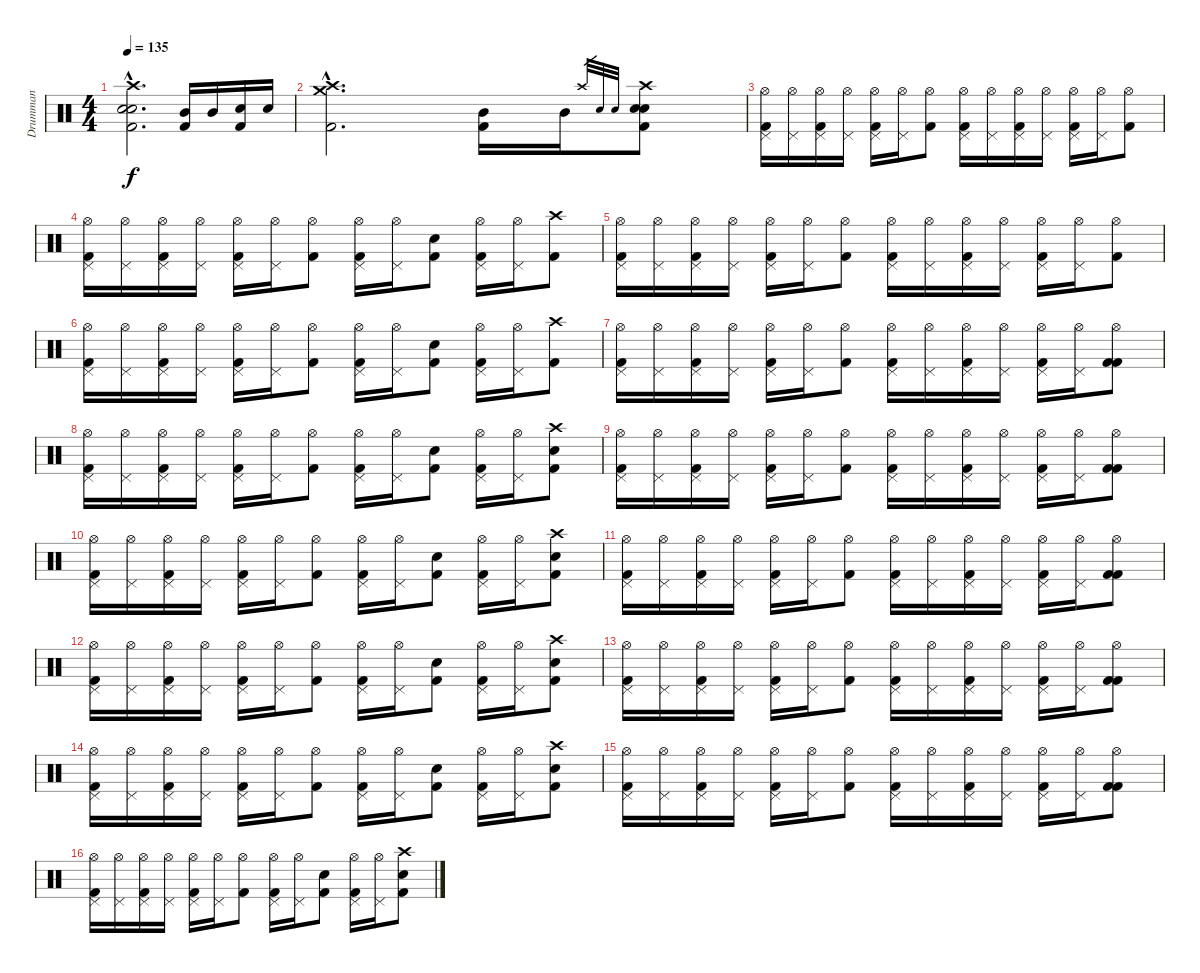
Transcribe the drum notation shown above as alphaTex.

\track ("Drumman" "Drumman") {instrument percussion}
\staff {score}
\articulation defaults
\ts (4 4)
\tempo 135
\clef neutral
\ks c
("Crash high (hit)"{hac} "Snare (hit) 2"{hac} "Snare (hit) 2"{hac} "Kick (hit) 2"{hac}).2{d bd 120 dy f} ("Kick (hit) 2" "Mid Tom (hit)").16 "Mid Tom (hit)".16 ("Kick (hit) 2" "Snare (hit) 2").16 "Snare (hit) 2".16 |
("Crash medium (hit)"{hac} "Crash high (hit)"{hac} "Kick (hit) 2"{hac}).2{d bd 120} ("Mid Tom (hit)" "Kick (hit) 2").16 "Mid Tom (hit)".16 "Crash high (hit)".32{gr} "Snare (hit) 2".32{gr} "Snare (hit) 2".32{gr} ("Crash high (hit)" "Snare (hit) 2" "Snare (hit) 2" "Kick (hit) 2").8{bd 120} |
("Hi-Hat (open)" "Pedal Hi-Hat (hit)" "Kick (hit) 2").16 ("Hi-Hat (open)" "Pedal Hi-Hat (hit)").16 ("Hi-Hat (open)" "Pedal Hi-Hat (hit)" "Kick (hit) 2").16 ("Hi-Hat (open)" "Pedal Hi-Hat (hit)").16 ("Hi-Hat (open)" "Pedal Hi-Hat (hit)" "Kick (hit) 2").16 ("Hi-Hat (open)" "Pedal Hi-Hat (hit)").16 ("Hi-Hat (open)" "Kick (hit) 2").8 ("Hi-Hat (open)" "Pedal Hi-Hat (hit)" "Kick (hit) 2").16 ("Hi-Hat (open)" "Pedal Hi-Hat (hit)").16 ("Hi-Hat (open)" "Pedal Hi-Hat (hit)" "Kick (hit) 2").16 ("Hi-Hat (open)" "Pedal Hi-Hat (hit)").16 ("Hi-Hat (open)" "Pedal Hi-Hat (hit)" "Kick (hit) 2").16 ("Hi-Hat (open)" "Pedal Hi-Hat (hit)").16 ("Hi-Hat (open)" "Kick (hit) 2").8 |
("Hi-Hat (open)" "Pedal Hi-Hat (hit)" "Kick (hit) 2").16 ("Hi-Hat (open)" "Pedal Hi-Hat (hit)").16 ("Hi-Hat (open)" "Pedal Hi-Hat (hit)" "Kick (hit) 2").16 ("Hi-Hat (open)" "Pedal Hi-Hat (hit)").16 ("Hi-Hat (open)" "Pedal Hi-Hat (hit)" "Kick (hit) 2").16 ("Hi-Hat (open)" "Pedal Hi-Hat (hit)").16 ("Hi-Hat (open)" "Kick (hit) 2").8 ("Hi-Hat (open)" "Pedal Hi-Hat (hit)" "Kick (hit) 2").16 ("Hi-Hat (open)" "Pedal Hi-Hat (hit)").16 ("Snare (hit) 2" "Kick (hit) 2").8 ("Hi-Hat (open)" "Pedal Hi-Hat (hit)" "Kick (hit) 2").16 ("Hi-Hat (open)" "Pedal Hi-Hat (hit)").16 ("Crash high (hit)" "Kick (hit) 2").8 |
("Hi-Hat (open)" "Pedal Hi-Hat (hit)" "Kick (hit) 2").16 ("Hi-Hat (open)" "Pedal Hi-Hat (hit)").16 ("Hi-Hat (open)" "Pedal Hi-Hat (hit)" "Kick (hit) 2").16 ("Hi-Hat (open)" "Pedal Hi-Hat (hit)").16 ("Hi-Hat (open)" "Pedal Hi-Hat (hit)" "Kick (hit) 2").16 ("Hi-Hat (open)" "Pedal Hi-Hat (hit)").16 ("Hi-Hat (open)" "Kick (hit) 2").8 ("Hi-Hat (open)" "Pedal Hi-Hat (hit)" "Kick (hit) 2").16 ("Hi-Hat (open)" "Pedal Hi-Hat (hit)").16 ("Hi-Hat (open)" "Pedal Hi-Hat (hit)" "Kick (hit) 2").16 ("Hi-Hat (open)" "Pedal Hi-Hat (hit)").16 ("Hi-Hat (open)" "Pedal Hi-Hat (hit)" "Kick (hit) 2").16 ("Hi-Hat (open)" "Pedal Hi-Hat (hit)").16 ("Hi-Hat (open)" "Kick (hit) 2").8 |
("Hi-Hat (open)" "Pedal Hi-Hat (hit)" "Kick (hit) 2").16 ("Hi-Hat (open)" "Pedal Hi-Hat (hit)").16 ("Hi-Hat (open)" "Pedal Hi-Hat (hit)" "Kick (hit) 2").16 ("Hi-Hat (open)" "Pedal Hi-Hat (hit)").16 ("Hi-Hat (open)" "Pedal Hi-Hat (hit)" "Kick (hit) 2").16 ("Hi-Hat (open)" "Pedal Hi-Hat (hit)").16 ("Hi-Hat (open)" "Kick (hit) 2").8 ("Hi-Hat (open)" "Pedal Hi-Hat (hit)" "Kick (hit) 2").16 ("Hi-Hat (open)" "Pedal Hi-Hat (hit)").16 ("Snare (hit) 2" "Kick (hit) 2").8 ("Hi-Hat (open)" "Pedal Hi-Hat (hit)" "Kick (hit) 2").16 ("Hi-Hat (open)" "Pedal Hi-Hat (hit)").16 ("Crash high (hit)" "Kick (hit) 2").8 |
("Hi-Hat (open)" "Pedal Hi-Hat (hit)" "Kick (hit) 2").16 ("Hi-Hat (open)" "Pedal Hi-Hat (hit)").16 ("Hi-Hat (open)" "Pedal Hi-Hat (hit)" "Kick (hit) 2").16 ("Hi-Hat (open)" "Pedal Hi-Hat (hit)").16 ("Hi-Hat (open)" "Pedal Hi-Hat (hit)" "Kick (hit) 2").16 ("Hi-Hat (open)" "Pedal Hi-Hat (hit)").16 ("Hi-Hat (open)" "Kick (hit) 2").8 ("Hi-Hat (open)" "Pedal Hi-Hat (hit)" "Kick (hit) 2").16 ("Hi-Hat (open)" "Pedal Hi-Hat (hit)").16 ("Hi-Hat (open)" "Pedal Hi-Hat (hit)" "Kick (hit) 2").16 ("Hi-Hat (open)" "Pedal Hi-Hat (hit)").16 ("Hi-Hat (open)" "Pedal Hi-Hat (hit)" "Kick (hit) 2").16 ("Hi-Hat (open)" "Pedal Hi-Hat (hit)").16 ("Hi-Hat (open)" "Kick (hit) 2" "Kick (hit) 2").8 |
("Hi-Hat (open)" "Pedal Hi-Hat (hit)" "Kick (hit) 2").16 ("Hi-Hat (open)" "Pedal Hi-Hat (hit)").16 ("Hi-Hat (open)" "Pedal Hi-Hat (hit)" "Kick (hit) 2").16 ("Hi-Hat (open)" "Pedal Hi-Hat (hit)").16 ("Hi-Hat (open)" "Pedal Hi-Hat (hit)" "Kick (hit) 2").16 ("Hi-Hat (open)" "Pedal Hi-Hat (hit)").16 ("Hi-Hat (open)" "Kick (hit) 2").8 ("Hi-Hat (open)" "Pedal Hi-Hat (hit)" "Kick (hit) 2").16 ("Hi-Hat (open)" "Pedal Hi-Hat (hit)").16 ("Snare (hit) 2" "Kick (hit) 2").8 ("Hi-Hat (open)" "Pedal Hi-Hat (hit)" "Kick (hit) 2").16 ("Hi-Hat (open)" "Pedal Hi-Hat (hit)").16 ("Crash high (hit)" "Snare (hit) 2" "Kick (hit) 2").8 |
("Hi-Hat (open)" "Pedal Hi-Hat (hit)" "Kick (hit) 2").16 ("Hi-Hat (open)" "Pedal Hi-Hat (hit)").16 ("Hi-Hat (open)" "Pedal Hi-Hat (hit)" "Kick (hit) 2").16 ("Hi-Hat (open)" "Pedal Hi-Hat (hit)").16 ("Hi-Hat (open)" "Pedal Hi-Hat (hit)" "Kick (hit) 2").16 ("Hi-Hat (open)" "Pedal Hi-Hat (hit)").16 ("Hi-Hat (open)" "Kick (hit) 2").8 ("Hi-Hat (open)" "Pedal Hi-Hat (hit)" "Kick (hit) 2").16 ("Hi-Hat (open)" "Pedal Hi-Hat (hit)").16 ("Hi-Hat (open)" "Pedal Hi-Hat (hit)" "Kick (hit) 2").16 ("Hi-Hat (open)" "Pedal Hi-Hat (hit)").16 ("Hi-Hat (open)" "Pedal Hi-Hat (hit)" "Kick (hit) 2").16 ("Hi-Hat (open)" "Pedal Hi-Hat (hit)").16 ("Hi-Hat (open)" "Kick (hit) 2" "Kick (hit) 2").8 |
("Hi-Hat (open)" "Pedal Hi-Hat (hit)" "Kick (hit) 2").16 ("Hi-Hat (open)" "Pedal Hi-Hat (hit)").16 ("Hi-Hat (open)" "Pedal Hi-Hat (hit)" "Kick (hit) 2").16 ("Hi-Hat (open)" "Pedal Hi-Hat (hit)").16 ("Hi-Hat (open)" "Pedal Hi-Hat (hit)" "Kick (hit) 2").16 ("Hi-Hat (open)" "Pedal Hi-Hat (hit)").16 ("Hi-Hat (open)" "Kick (hit) 2").8 ("Hi-Hat (open)" "Pedal Hi-Hat (hit)" "Kick (hit) 2").16 ("Hi-Hat (open)" "Pedal Hi-Hat (hit)").16 ("Snare (hit) 2" "Kick (hit) 2").8 ("Hi-Hat (open)" "Pedal Hi-Hat (hit)" "Kick (hit) 2").16 ("Hi-Hat (open)" "Pedal Hi-Hat (hit)").16 ("Crash high (hit)" "Snare (hit) 2" "Kick (hit) 2").8 |
("Hi-Hat (open)" "Pedal Hi-Hat (hit)" "Kick (hit) 2").16 ("Hi-Hat (open)" "Pedal Hi-Hat (hit)").16 ("Hi-Hat (open)" "Pedal Hi-Hat (hit)" "Kick (hit) 2").16 ("Hi-Hat (open)" "Pedal Hi-Hat (hit)").16 ("Hi-Hat (open)" "Pedal Hi-Hat (hit)" "Kick (hit) 2").16 ("Hi-Hat (open)" "Pedal Hi-Hat (hit)").16 ("Hi-Hat (open)" "Kick (hit) 2").8 ("Hi-Hat (open)" "Pedal Hi-Hat (hit)" "Kick (hit) 2").16 ("Hi-Hat (open)" "Pedal Hi-Hat (hit)").16 ("Hi-Hat (open)" "Pedal Hi-Hat (hit)" "Kick (hit) 2").16 ("Hi-Hat (open)" "Pedal Hi-Hat (hit)").16 ("Hi-Hat (open)" "Pedal Hi-Hat (hit)" "Kick (hit) 2").16 ("Hi-Hat (open)" "Pedal Hi-Hat (hit)").16 ("Hi-Hat (open)" "Kick (hit) 2" "Kick (hit) 2").8 |
("Hi-Hat (open)" "Pedal Hi-Hat (hit)" "Kick (hit) 2").16 ("Hi-Hat (open)" "Pedal Hi-Hat (hit)").16 ("Hi-Hat (open)" "Pedal Hi-Hat (hit)" "Kick (hit) 2").16 ("Hi-Hat (open)" "Pedal Hi-Hat (hit)").16 ("Hi-Hat (open)" "Pedal Hi-Hat (hit)" "Kick (hit) 2").16 ("Hi-Hat (open)" "Pedal Hi-Hat (hit)").16 ("Hi-Hat (open)" "Kick (hit) 2").8 ("Hi-Hat (open)" "Pedal Hi-Hat (hit)" "Kick (hit) 2").16 ("Hi-Hat (open)" "Pedal Hi-Hat (hit)").16 ("Snare (hit) 2" "Kick (hit) 2").8 ("Hi-Hat (open)" "Pedal Hi-Hat (hit)" "Kick (hit) 2").16 ("Hi-Hat (open)" "Pedal Hi-Hat (hit)").16 ("Crash high (hit)" "Snare (hit) 2" "Kick (hit) 2").8 |
("Hi-Hat (open)" "Pedal Hi-Hat (hit)" "Kick (hit) 2").16 ("Hi-Hat (open)" "Pedal Hi-Hat (hit)").16 ("Hi-Hat (open)" "Pedal Hi-Hat (hit)" "Kick (hit) 2").16 ("Hi-Hat (open)" "Pedal Hi-Hat (hit)").16 ("Hi-Hat (open)" "Pedal Hi-Hat (hit)" "Kick (hit) 2").16 ("Hi-Hat (open)" "Pedal Hi-Hat (hit)").16 ("Hi-Hat (open)" "Kick (hit) 2").8 ("Hi-Hat (open)" "Pedal Hi-Hat (hit)" "Kick (hit) 2").16 ("Hi-Hat (open)" "Pedal Hi-Hat (hit)").16 ("Hi-Hat (open)" "Pedal Hi-Hat (hit)" "Kick (hit) 2").16 ("Hi-Hat (open)" "Pedal Hi-Hat (hit)").16 ("Hi-Hat (open)" "Pedal Hi-Hat (hit)" "Kick (hit) 2").16 ("Hi-Hat (open)" "Pedal Hi-Hat (hit)").16 ("Hi-Hat (open)" "Kick (hit) 2" "Kick (hit) 2").8 |
("Hi-Hat (open)" "Pedal Hi-Hat (hit)" "Kick (hit) 2").16 ("Hi-Hat (open)" "Pedal Hi-Hat (hit)").16 ("Hi-Hat (open)" "Pedal Hi-Hat (hit)" "Kick (hit) 2").16 ("Hi-Hat (open)" "Pedal Hi-Hat (hit)").16 ("Hi-Hat (open)" "Pedal Hi-Hat (hit)" "Kick (hit) 2").16 ("Hi-Hat (open)" "Pedal Hi-Hat (hit)").16 ("Hi-Hat (open)" "Kick (hit) 2").8 ("Hi-Hat (open)" "Pedal Hi-Hat (hit)" "Kick (hit) 2").16 ("Hi-Hat (open)" "Pedal Hi-Hat (hit)").16 ("Snare (hit) 2" "Kick (hit) 2").8 ("Hi-Hat (open)" "Pedal Hi-Hat (hit)" "Kick (hit) 2").16 ("Hi-Hat (open)" "Pedal Hi-Hat (hit)").16 ("Crash high (hit)" "Snare (hit) 2" "Kick (hit) 2").8 |
("Hi-Hat (open)" "Pedal Hi-Hat (hit)" "Kick (hit) 2").16 ("Hi-Hat (open)" "Pedal Hi-Hat (hit)").16 ("Hi-Hat (open)" "Pedal Hi-Hat (hit)" "Kick (hit) 2").16 ("Hi-Hat (open)" "Pedal Hi-Hat (hit)").16 ("Hi-Hat (open)" "Pedal Hi-Hat (hit)" "Kick (hit) 2").16 ("Hi-Hat (open)" "Pedal Hi-Hat (hit)").16 ("Hi-Hat (open)" "Kick (hit) 2").8 ("Hi-Hat (open)" "Pedal Hi-Hat (hit)" "Kick (hit) 2").16 ("Hi-Hat (open)" "Pedal Hi-Hat (hit)").16 ("Hi-Hat (open)" "Pedal Hi-Hat (hit)" "Kick (hit) 2").16 ("Hi-Hat (open)" "Pedal Hi-Hat (hit)").16 ("Hi-Hat (open)" "Pedal Hi-Hat (hit)" "Kick (hit) 2").16 ("Hi-Hat (open)" "Pedal Hi-Hat (hit)").16 ("Hi-Hat (open)" "Kick (hit) 2" "Kick (hit) 2").8 |
("Hi-Hat (open)" "Pedal Hi-Hat (hit)" "Kick (hit) 2").16 ("Hi-Hat (open)" "Pedal Hi-Hat (hit)").16 ("Hi-Hat (open)" "Pedal Hi-Hat (hit)" "Kick (hit) 2").16 ("Hi-Hat (open)" "Pedal Hi-Hat (hit)").16 ("Hi-Hat (open)" "Pedal Hi-Hat (hit)" "Kick (hit) 2").16 ("Hi-Hat (open)" "Pedal Hi-Hat (hit)").16 ("Hi-Hat (open)" "Kick (hit) 2").8 ("Hi-Hat (open)" "Pedal Hi-Hat (hit)" "Kick (hit) 2").16 ("Hi-Hat (open)" "Pedal Hi-Hat (hit)").16 ("Snare (hit) 2" "Kick (hit) 2").8 ("Hi-Hat (open)" "Pedal Hi-Hat (hit)" "Kick (hit) 2").16 ("Hi-Hat (open)" "Pedal Hi-Hat (hit)").16 ("Crash high (hit)" "Snare (hit) 2" "Kick (hit) 2").8
